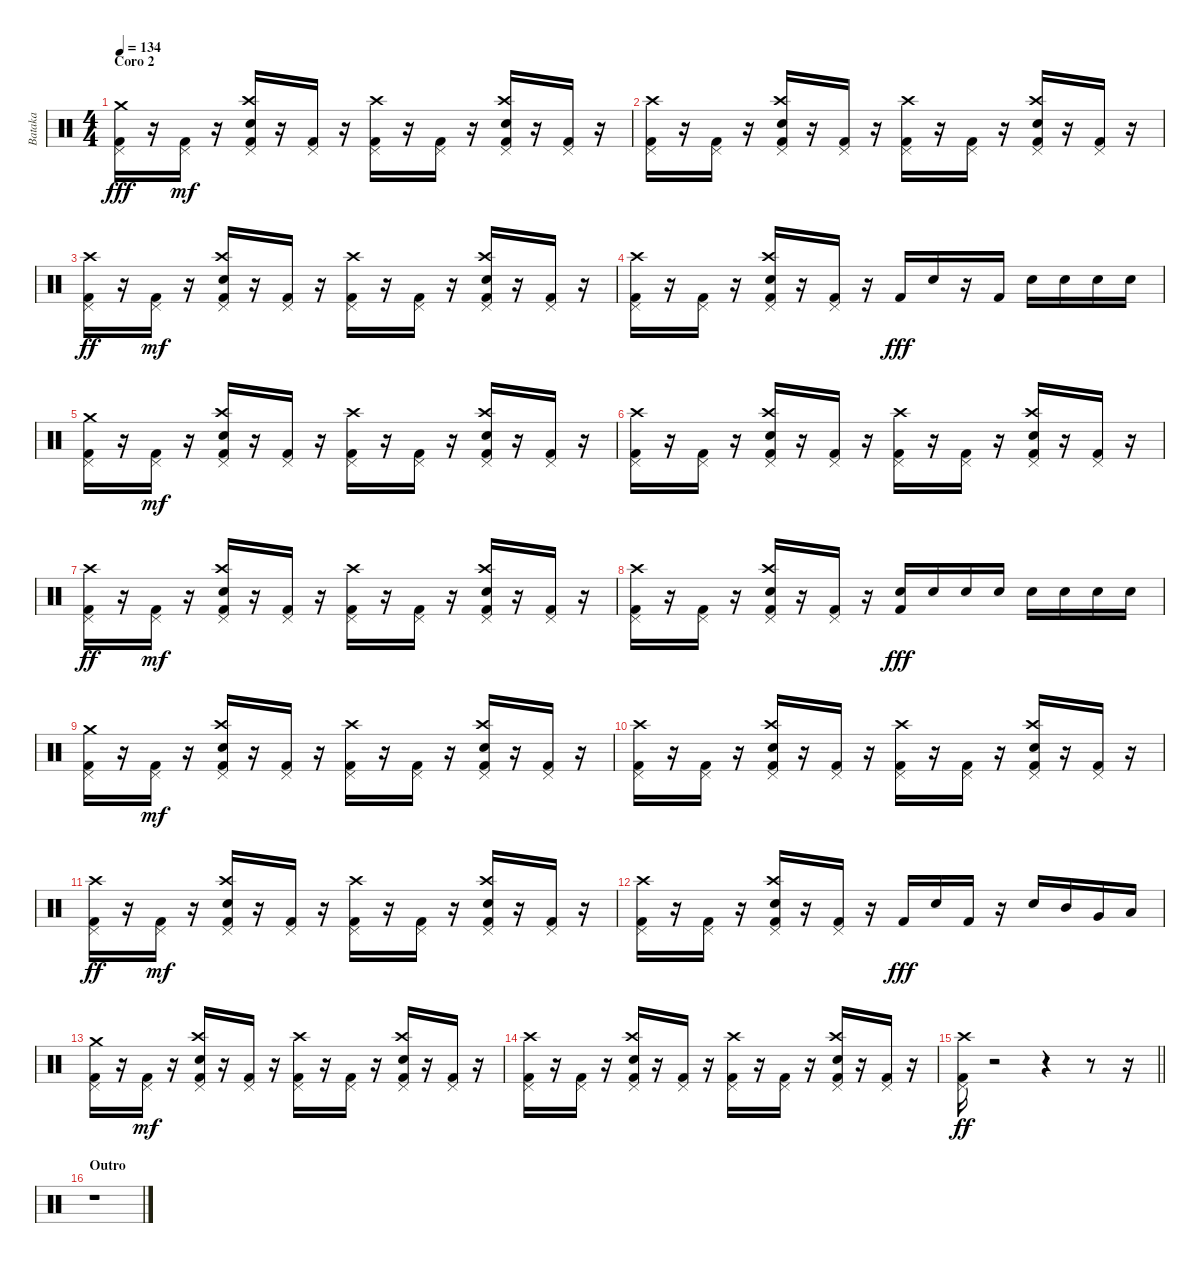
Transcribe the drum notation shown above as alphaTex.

\track ("Bataka" "Bataka") {instrument percussion}
\staff {score}
\articulation defaults
\ts (4 4)
\section ("" "Coro 2")
\tempo 134
\clef neutral
\ks c
("Kick (hit) 2" "Pedal Hi-Hat (hit)" "Crash medium (hit)").16{dy fff} r.16 ("Kick (hit) 2" "Pedal Hi-Hat (hit)").16{dy mf} r.16 ("Kick (hit) 2" "Crash high (hit)" "Snare (hit) 2" "Pedal Hi-Hat (hit)").16 r.16 ("Kick (hit) 2" "Pedal Hi-Hat (hit)").16 r.16 ("Kick (hit) 2" "Crash high (hit)" "Pedal Hi-Hat (hit)").16 r.16 ("Kick (hit) 2" "Pedal Hi-Hat (hit)").16 r.16 ("Kick (hit) 2" "Crash high (hit)" "Snare (hit) 2" "Pedal Hi-Hat (hit)").16 r.16 ("Kick (hit) 2" "Pedal Hi-Hat (hit)").16 r.16 |
("Kick (hit) 2" "Crash high (hit)" "Pedal Hi-Hat (hit)").16 r.16 ("Kick (hit) 2" "Pedal Hi-Hat (hit)").16 r.16 ("Kick (hit) 2" "Crash high (hit)" "Snare (hit) 2" "Pedal Hi-Hat (hit)").16 r.16 ("Kick (hit) 2" "Pedal Hi-Hat (hit)").16 r.16 ("Kick (hit) 2" "Crash high (hit)" "Pedal Hi-Hat (hit)").16 r.16 ("Kick (hit) 2" "Pedal Hi-Hat (hit)").16 r.16 ("Kick (hit) 2" "Crash high (hit)" "Snare (hit) 2" "Pedal Hi-Hat (hit)").16 r.16 ("Kick (hit) 2" "Pedal Hi-Hat (hit)").16 r.16 |
("Kick (hit) 2" "Pedal Hi-Hat (hit)" "Crash high (hit)").16{dy ff} r.16 ("Kick (hit) 2" "Pedal Hi-Hat (hit)").16{dy mf} r.16 ("Kick (hit) 2" "Crash high (hit)" "Snare (hit) 2" "Pedal Hi-Hat (hit)").16 r.16 ("Kick (hit) 2" "Pedal Hi-Hat (hit)").16 r.16 ("Kick (hit) 2" "Crash high (hit)" "Pedal Hi-Hat (hit)").16 r.16 ("Kick (hit) 2" "Pedal Hi-Hat (hit)").16 r.16 ("Kick (hit) 2" "Crash high (hit)" "Snare (hit) 2" "Pedal Hi-Hat (hit)").16 r.16 ("Kick (hit) 2" "Pedal Hi-Hat (hit)").16 r.16 |
("Kick (hit) 2" "Crash high (hit)" "Pedal Hi-Hat (hit)").16 r.16 ("Kick (hit) 2" "Pedal Hi-Hat (hit)").16 r.16 ("Kick (hit) 2" "Crash high (hit)" "Snare (hit) 2" "Pedal Hi-Hat (hit)").16 r.16 ("Kick (hit) 2" "Pedal Hi-Hat (hit)").16 r.16 "Kick (hit) 2".16{dy fff} "Snare (hit) 2".16 r.16 "Kick (hit) 2".16 "Snare (hit) 2".16 "Snare (hit) 2".16 "Snare (hit) 2".16 "Snare (hit) 2".16 |
("Kick (hit) 2" "Pedal Hi-Hat (hit)" "Crash medium (hit)").16 r.16 ("Kick (hit) 2" "Pedal Hi-Hat (hit)").16{dy mf} r.16 ("Kick (hit) 2" "Crash high (hit)" "Snare (hit) 2" "Pedal Hi-Hat (hit)").16 r.16 ("Kick (hit) 2" "Pedal Hi-Hat (hit)").16 r.16 ("Kick (hit) 2" "Crash high (hit)" "Pedal Hi-Hat (hit)").16 r.16 ("Kick (hit) 2" "Pedal Hi-Hat (hit)").16 r.16 ("Kick (hit) 2" "Crash high (hit)" "Snare (hit) 2" "Pedal Hi-Hat (hit)").16 r.16 ("Kick (hit) 2" "Pedal Hi-Hat (hit)").16 r.16 |
("Kick (hit) 2" "Crash high (hit)" "Pedal Hi-Hat (hit)").16 r.16 ("Kick (hit) 2" "Pedal Hi-Hat (hit)").16 r.16 ("Kick (hit) 2" "Crash high (hit)" "Snare (hit) 2" "Pedal Hi-Hat (hit)").16 r.16 ("Kick (hit) 2" "Pedal Hi-Hat (hit)").16 r.16 ("Kick (hit) 2" "Crash high (hit)" "Pedal Hi-Hat (hit)").16 r.16 ("Kick (hit) 2" "Pedal Hi-Hat (hit)").16 r.16 ("Kick (hit) 2" "Crash high (hit)" "Snare (hit) 2" "Pedal Hi-Hat (hit)").16 r.16 ("Kick (hit) 2" "Pedal Hi-Hat (hit)").16 r.16 |
("Kick (hit) 2" "Pedal Hi-Hat (hit)" "Crash high (hit)").16{dy ff} r.16 ("Kick (hit) 2" "Pedal Hi-Hat (hit)").16{dy mf} r.16 ("Kick (hit) 2" "Crash high (hit)" "Snare (hit) 2" "Pedal Hi-Hat (hit)").16 r.16 ("Kick (hit) 2" "Pedal Hi-Hat (hit)").16 r.16 ("Kick (hit) 2" "Crash high (hit)" "Pedal Hi-Hat (hit)").16 r.16 ("Kick (hit) 2" "Pedal Hi-Hat (hit)").16 r.16 ("Kick (hit) 2" "Crash high (hit)" "Snare (hit) 2" "Pedal Hi-Hat (hit)").16 r.16 ("Kick (hit) 2" "Pedal Hi-Hat (hit)").16 r.16 |
("Kick (hit) 2" "Crash high (hit)" "Pedal Hi-Hat (hit)").16 r.16 ("Kick (hit) 2" "Pedal Hi-Hat (hit)").16 r.16 ("Kick (hit) 2" "Crash high (hit)" "Snare (hit) 2" "Pedal Hi-Hat (hit)").16 r.16 ("Kick (hit) 2" "Pedal Hi-Hat (hit)").16 r.16 ("Kick (hit) 2" "Snare (hit) 2").16{dy fff} "Snare (hit) 2".16 "Snare (hit) 2".16 "Snare (hit) 2".16 "Snare (hit) 2".16 "Snare (hit) 2".16 "Snare (hit) 2".16 "Snare (hit) 2".16 |
("Kick (hit) 2" "Pedal Hi-Hat (hit)" "Crash medium (hit)").16 r.16 ("Kick (hit) 2" "Pedal Hi-Hat (hit)").16{dy mf} r.16 ("Kick (hit) 2" "Crash high (hit)" "Snare (hit) 2" "Pedal Hi-Hat (hit)").16 r.16 ("Kick (hit) 2" "Pedal Hi-Hat (hit)").16 r.16 ("Kick (hit) 2" "Crash high (hit)" "Pedal Hi-Hat (hit)").16 r.16 ("Kick (hit) 2" "Pedal Hi-Hat (hit)").16 r.16 ("Kick (hit) 2" "Crash high (hit)" "Snare (hit) 2" "Pedal Hi-Hat (hit)").16 r.16 ("Kick (hit) 2" "Pedal Hi-Hat (hit)").16 r.16 |
("Kick (hit) 2" "Crash high (hit)" "Pedal Hi-Hat (hit)").16 r.16 ("Kick (hit) 2" "Pedal Hi-Hat (hit)").16 r.16 ("Kick (hit) 2" "Crash high (hit)" "Snare (hit) 2" "Pedal Hi-Hat (hit)").16 r.16 ("Kick (hit) 2" "Pedal Hi-Hat (hit)").16 r.16 ("Kick (hit) 2" "Crash high (hit)" "Pedal Hi-Hat (hit)").16 r.16 ("Kick (hit) 2" "Pedal Hi-Hat (hit)").16 r.16 ("Kick (hit) 2" "Crash high (hit)" "Snare (hit) 2" "Pedal Hi-Hat (hit)").16 r.16 ("Kick (hit) 2" "Pedal Hi-Hat (hit)").16 r.16 |
("Kick (hit) 2" "Pedal Hi-Hat (hit)" "Crash high (hit)").16{dy ff} r.16 ("Kick (hit) 2" "Pedal Hi-Hat (hit)").16{dy mf} r.16 ("Kick (hit) 2" "Crash high (hit)" "Snare (hit) 2" "Pedal Hi-Hat (hit)").16 r.16 ("Kick (hit) 2" "Pedal Hi-Hat (hit)").16 r.16 ("Kick (hit) 2" "Crash high (hit)" "Pedal Hi-Hat (hit)").16 r.16 ("Kick (hit) 2" "Pedal Hi-Hat (hit)").16 r.16 ("Kick (hit) 2" "Crash high (hit)" "Snare (hit) 2" "Pedal Hi-Hat (hit)").16 r.16 ("Kick (hit) 2" "Pedal Hi-Hat (hit)").16 r.16 |
("Kick (hit) 2" "Crash high (hit)" "Pedal Hi-Hat (hit)").16 r.16 ("Kick (hit) 2" "Pedal Hi-Hat (hit)").16 r.16 ("Kick (hit) 2" "Crash high (hit)" "Snare (hit) 2" "Pedal Hi-Hat (hit)").16 r.16 ("Kick (hit) 2" "Pedal Hi-Hat (hit)").16 r.16 "Kick (hit) 2".16{dy fff} "Snare (hit) 2".16 "Kick (hit) 2".16 r.16 "Snare (hit) 2".16 "Mid Tom (hit)".16 "Very Low Tom (hit)".16 "Low Floor Tom (hit)".16 |
("Kick (hit) 2" "Pedal Hi-Hat (hit)" "Crash medium (hit)").16 r.16 ("Kick (hit) 2" "Pedal Hi-Hat (hit)").16{dy mf} r.16 ("Kick (hit) 2" "Crash high (hit)" "Snare (hit) 2" "Pedal Hi-Hat (hit)").16 r.16 ("Kick (hit) 2" "Pedal Hi-Hat (hit)").16 r.16 ("Kick (hit) 2" "Crash high (hit)" "Pedal Hi-Hat (hit)").16 r.16 ("Kick (hit) 2" "Pedal Hi-Hat (hit)").16 r.16 ("Kick (hit) 2" "Crash high (hit)" "Snare (hit) 2" "Pedal Hi-Hat (hit)").16 r.16 ("Kick (hit) 2" "Pedal Hi-Hat (hit)").16 r.16 |
("Kick (hit) 2" "Crash high (hit)" "Pedal Hi-Hat (hit)").16 r.16 ("Kick (hit) 2" "Pedal Hi-Hat (hit)").16 r.16 ("Kick (hit) 2" "Crash high (hit)" "Snare (hit) 2" "Pedal Hi-Hat (hit)").16 r.16 ("Kick (hit) 2" "Pedal Hi-Hat (hit)").16 r.16 ("Kick (hit) 2" "Crash high (hit)" "Pedal Hi-Hat (hit)").16 r.16 ("Kick (hit) 2" "Pedal Hi-Hat (hit)").16 r.16 ("Kick (hit) 2" "Crash high (hit)" "Snare (hit) 2" "Pedal Hi-Hat (hit)").16 r.16 ("Kick (hit) 2" "Pedal Hi-Hat (hit)").16 r.16 |
\barLineRight lightlight
("Kick (hit) 2" "Pedal Hi-Hat (hit)" "Crash high (hit)").16{dy ff} r.2 r.4 r.8 r.16 |
\section ("" "Outro")
r.1
